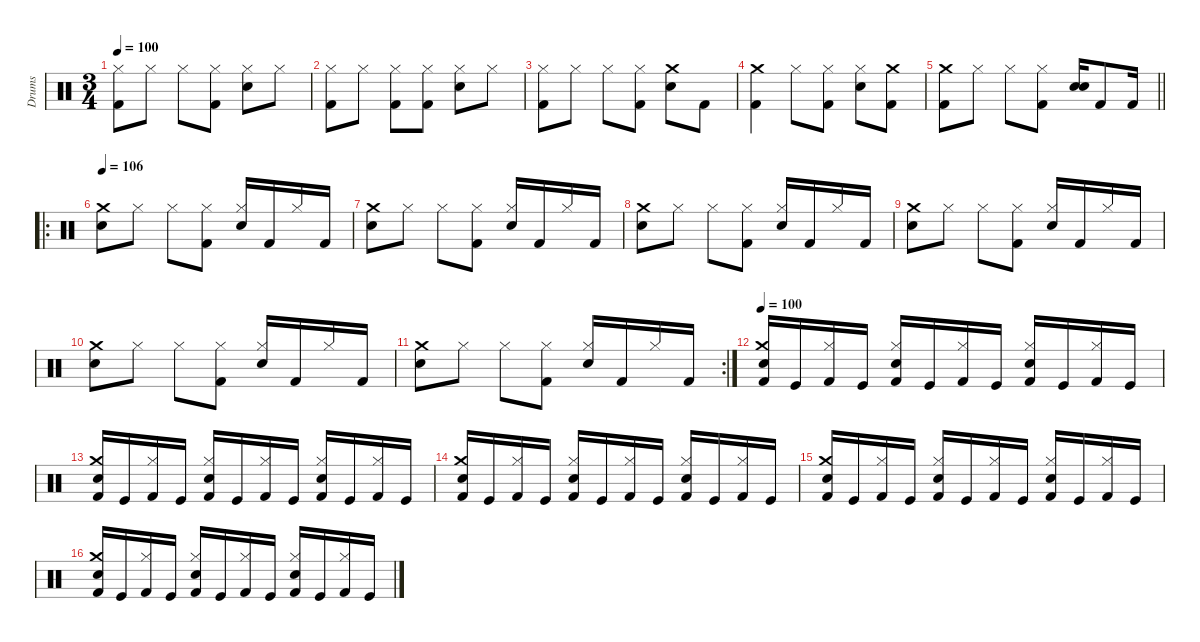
\defaultSystemsLayout 4
\hideDynamics
\bracketExtendMode nobrackets
\firstSystemTrackNameMode fullname
\otherSystemsTrackNameOrientation horizontal
\track ("Drums" "drm.") {instrument percussion}
\staff {score}
\articulation defaults
\ts (3 4)
\tempo 100
\clef neutral
\ks c
("Hi-Hat (closed)" "Kick (hit) 2").8{dy fff beam Down} "Hi-Hat (closed)".8{beam Down} "Hi-Hat (closed)".8{beam Down} ("Kick (hit) 2" "Hi-Hat (closed)").8{beam Down} ("Hi-Hat (closed)" "Snare (hit) 2").8{beam Down} "Hi-Hat (closed)".8{beam Down} |
("Hi-Hat (closed)" "Kick (hit) 2").8{beam Down} "Hi-Hat (closed)".8{beam Down} ("Kick (hit) 2" "Hi-Hat (closed)").8{beam Down} ("Kick (hit) 2" "Hi-Hat (closed)").8{beam Down} ("Hi-Hat (closed)" "Snare (hit) 2").8{beam Down} "Hi-Hat (closed)".8{beam Down} |
("Kick (hit) 2" "Hi-Hat (closed)").8{beam Down} "Hi-Hat (closed)".8{beam Down} "Hi-Hat (closed)".8{beam Down} ("Kick (hit) 2" "Hi-Hat (closed)").8{beam Down} ("Snare (hit) 2" "Crash medium (hit)").8{beam Down} "Kick (hit) 2".8{beam Down} |
("Kick (hit) 2" "Crash medium (hit)").4{beam Down} "Hi-Hat (closed)".8{beam Down} ("Kick (hit) 2" "Hi-Hat (closed)").8{beam Down} ("Hi-Hat (closed)" "Snare (hit) 2").8{beam Down} ("Kick (hit) 2" "Crash medium (hit)").8{beam Down} |
\barLineRight lightlight
("Kick (hit) 2" "Crash medium (hit)").8{beam Down} "Hi-Hat (closed)".8{beam Down} "Hi-Hat (closed)".8{beam Down} ("Kick (hit) 2" "Hi-Hat (closed)").8{beam Down} ("Snare (hit) 2" "Snare (hit) 2").16{dy f beam Up} "Kick (hit) 2".8{dy fff beam Up} "Kick (hit) 2".16{beam Up} |
\ro
\tempo 106
("Snare (hit) 2" "Crash medium (hit)").8{beam Down} "Hi-Hat (closed)".8{beam Down} "Hi-Hat (closed)".8{beam Down} ("Kick (hit) 2" "Hi-Hat (closed)").8{beam Down} ("Snare (hit) 2" "Hi-Hat (closed)").16{beam Up} "Kick (hit) 2".16{beam Up} "Hi-Hat (closed)".16{beam Up} "Kick (hit) 2".16{beam Up} |
("Snare (hit) 2" "Crash medium (hit)").8{beam Down} "Hi-Hat (closed)".8{beam Down} "Hi-Hat (closed)".8{beam Down} ("Kick (hit) 2" "Hi-Hat (closed)").8{beam Down} ("Snare (hit) 2" "Hi-Hat (closed)").16{beam Up} "Kick (hit) 2".16{beam Up} "Hi-Hat (closed)".16{beam Up} "Kick (hit) 2".16{beam Up} |
("Snare (hit) 2" "Crash medium (hit)").8{beam Down} "Hi-Hat (closed)".8{beam Down} "Hi-Hat (closed)".8{beam Down} ("Kick (hit) 2" "Hi-Hat (closed)").8{beam Down} ("Snare (hit) 2" "Hi-Hat (closed)").16{beam Up} "Kick (hit) 2".16{beam Up} "Hi-Hat (closed)".16{beam Up} "Kick (hit) 2".16{beam Up} |
("Snare (hit) 2" "Crash medium (hit)").8{beam Down} "Hi-Hat (closed)".8{beam Down} "Hi-Hat (closed)".8{beam Down} ("Kick (hit) 2" "Hi-Hat (closed)").8{beam Down} ("Snare (hit) 2" "Hi-Hat (closed)").16{beam Up} "Kick (hit) 2".16{beam Up} "Hi-Hat (closed)".16{beam Up} "Kick (hit) 2".16{beam Up} |
("Snare (hit) 2" "Crash medium (hit)").8{beam Down} "Hi-Hat (closed)".8{beam Down} "Hi-Hat (closed)".8{beam Down} ("Kick (hit) 2" "Hi-Hat (closed)").8{beam Down} ("Snare (hit) 2" "Hi-Hat (closed)").16{beam Up} "Kick (hit) 2".16{beam Up} "Hi-Hat (closed)".16{beam Up} "Kick (hit) 2".16{beam Up} |
\rc 2
("Snare (hit) 2" "Crash medium (hit)").8{beam Down} "Hi-Hat (closed)".8{beam Down} "Hi-Hat (closed)".8{beam Down} ("Kick (hit) 2" "Hi-Hat (closed)").8{beam Down} ("Snare (hit) 2" "Hi-Hat (closed)").16{beam Up} "Kick (hit) 2".16{beam Up} "Hi-Hat (closed)".16{beam Up} "Kick (hit) 2".16{beam Up} |
\tempo 100
("Kick (hit) 2" "Snare (hit) 2" "Crash medium (hit)").16{beam Up} "Kick (hit)".16{beam Up} ("Kick (hit) 2" "Hi-Hat (closed)").16{beam Up} "Kick (hit)".16{beam Up} ("Kick (hit) 2" "Snare (hit) 2" "Hi-Hat (closed)").16{beam Up} "Kick (hit)".16{beam Up} ("Kick (hit) 2" "Hi-Hat (closed)").16{beam Up} "Kick (hit)".16{beam Up} ("Kick (hit) 2" "Snare (hit) 2" "Hi-Hat (closed)").16{beam Up} "Kick (hit)".16{beam Up} ("Kick (hit) 2" "Hi-Hat (closed)").16{beam Up} "Kick (hit)".16{beam Up} |
("Kick (hit) 2" "Snare (hit) 2" "Crash medium (hit)").16{beam Up} "Kick (hit)".16{beam Up} ("Kick (hit) 2" "Hi-Hat (closed)").16{beam Up} "Kick (hit)".16{beam Up} ("Kick (hit) 2" "Snare (hit) 2" "Hi-Hat (closed)").16{beam Up} "Kick (hit)".16{beam Up} ("Kick (hit) 2" "Hi-Hat (closed)").16{beam Up} "Kick (hit)".16{beam Up} ("Kick (hit) 2" "Snare (hit) 2" "Hi-Hat (closed)").16{beam Up} "Kick (hit)".16{beam Up} ("Kick (hit) 2" "Hi-Hat (closed)").16{beam Up} "Kick (hit)".16{beam Up} |
("Kick (hit) 2" "Snare (hit) 2" "Crash medium (hit)").16{beam Up} "Kick (hit)".16{beam Up} ("Kick (hit) 2" "Hi-Hat (closed)").16{beam Up} "Kick (hit)".16{beam Up} ("Kick (hit) 2" "Snare (hit) 2" "Hi-Hat (closed)").16{beam Up} "Kick (hit)".16{beam Up} ("Kick (hit) 2" "Hi-Hat (closed)").16{beam Up} "Kick (hit)".16{beam Up} ("Kick (hit) 2" "Snare (hit) 2" "Hi-Hat (closed)").16{beam Up} "Kick (hit)".16{beam Up} ("Kick (hit) 2" "Hi-Hat (closed)").16{beam Up} "Kick (hit)".16{beam Up} |
("Kick (hit) 2" "Snare (hit) 2" "Crash medium (hit)").16{beam Up} "Kick (hit)".16{beam Up} ("Kick (hit) 2" "Hi-Hat (closed)").16{beam Up} "Kick (hit)".16{beam Up} ("Kick (hit) 2" "Snare (hit) 2" "Hi-Hat (closed)").16{beam Up} "Kick (hit)".16{beam Up} ("Kick (hit) 2" "Hi-Hat (closed)").16{beam Up} "Kick (hit)".16{beam Up} ("Kick (hit) 2" "Snare (hit) 2" "Hi-Hat (closed)").16{beam Up} "Kick (hit)".16{beam Up} ("Kick (hit) 2" "Hi-Hat (closed)").16{beam Up} "Kick (hit)".16{beam Up} |
("Kick (hit) 2" "Snare (hit) 2" "Crash medium (hit)").16{beam Up} "Kick (hit)".16{beam Up} ("Kick (hit) 2" "Hi-Hat (closed)").16{beam Up} "Kick (hit)".16{beam Up} ("Kick (hit) 2" "Snare (hit) 2" "Hi-Hat (closed)").16{beam Up} "Kick (hit)".16{beam Up} ("Kick (hit) 2" "Hi-Hat (closed)").16{beam Up} "Kick (hit)".16{beam Up} ("Kick (hit) 2" "Snare (hit) 2" "Hi-Hat (closed)").16{beam Up} "Kick (hit)".16{beam Up} ("Kick (hit) 2" "Hi-Hat (closed)").16{beam Up} "Kick (hit)".16{beam Up}
